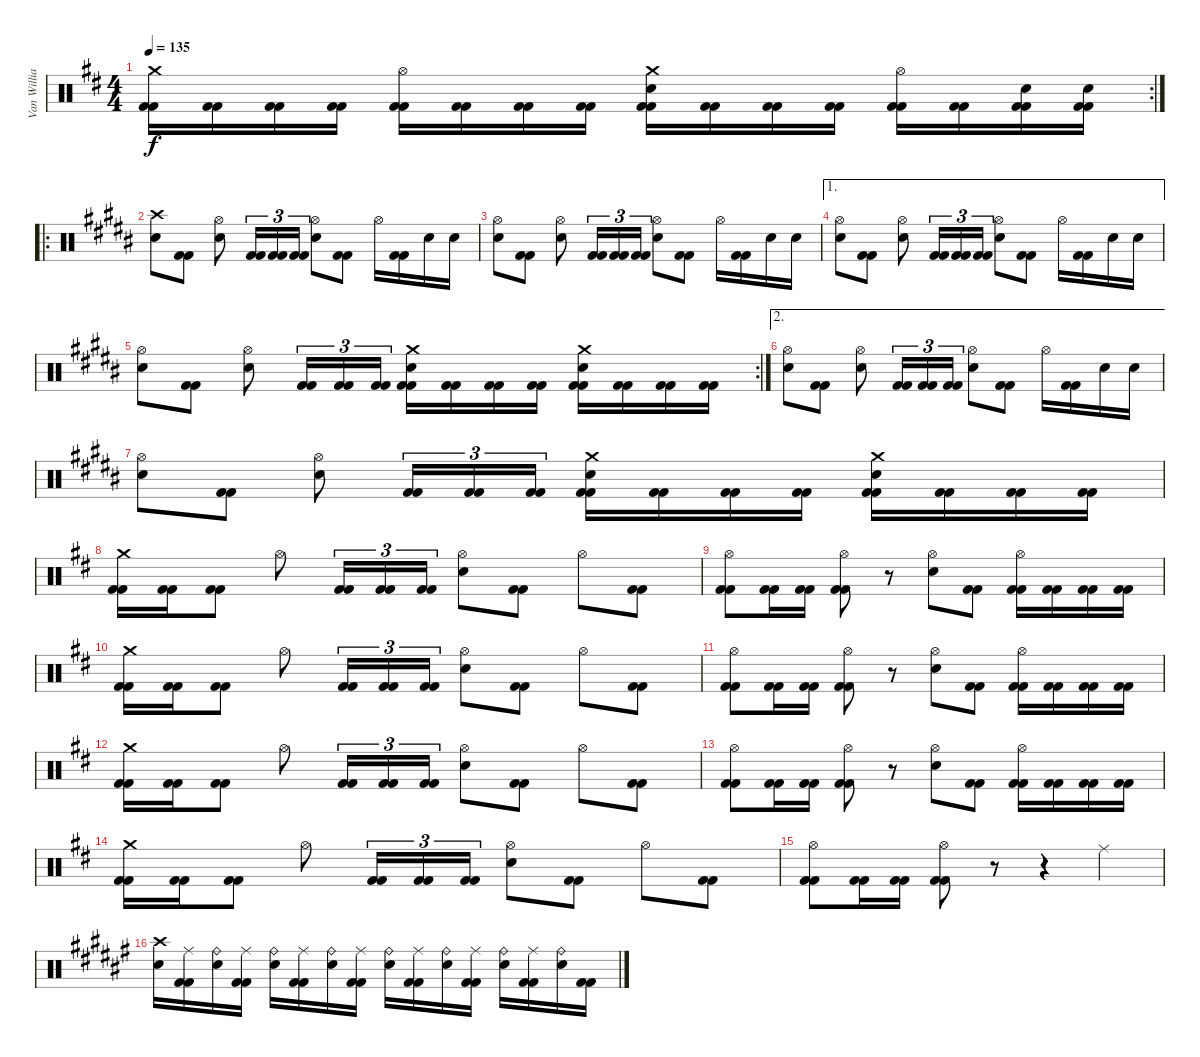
\track ("Van Williams" "Van Willia") {instrument percussion}
\staff {score}
\articulation defaults
\rc 2
\ts (4 4)
\tempo 135
\clef neutral
\ks d
("Crash medium (hit)" "Kick (hit) 2" "Kick (hit) 2").16{dy f} ("Kick (hit) 2" "Kick (hit) 2").16 ("Kick (hit) 2" "Kick (hit) 2").16 ("Kick (hit) 2" "Kick (hit) 2").16 ("Hi-Hat (open)" "Kick (hit) 2" "Kick (hit) 2").16 ("Kick (hit) 2" "Kick (hit) 2").16 ("Kick (hit) 2" "Kick (hit) 2").16 ("Kick (hit) 2" "Kick (hit) 2").16 ("Crash medium (hit)" "Electric Snare (hit)" "Kick (hit) 2" "Kick (hit) 2").16 ("Kick (hit) 2" "Kick (hit) 2").16 ("Kick (hit) 2" "Kick (hit) 2").16 ("Kick (hit) 2" "Kick (hit) 2").16 ("Hi-Hat (open)" "Kick (hit) 2" "Kick (hit) 2").16 ("Kick (hit) 2" "Kick (hit) 2").16 ("Electric Snare (hit)" "Kick (hit) 2" "Kick (hit) 2").16 ("Electric Snare (hit)" "Kick (hit) 2" "Kick (hit) 2").16 |
\ro
\ks b
("Crash high (hit)" "Electric Snare (hit)").8 ("Kick (hit) 2" "Kick (hit) 2").8 ("Hi-Hat (open)" "Electric Snare (hit)").8 ("Kick (hit) 2" "Kick (hit) 2").16{tu (3 2)} ("Kick (hit) 2" "Kick (hit) 2").16{tu (3 2)} ("Kick (hit) 2" "Kick (hit) 2").16{tu (3 2)} ("Hi-Hat (open)" "Electric Snare (hit)").8 ("Kick (hit) 2" "Kick (hit) 2").8 "Hi-Hat (open)".16 ("Kick (hit) 2" "Kick (hit) 2").16 "Electric Snare (hit)".16 "Electric Snare (hit)".16 |
("Hi-Hat (open)" "Electric Snare (hit)").8 ("Kick (hit) 2" "Kick (hit) 2").8 ("Hi-Hat (open)" "Electric Snare (hit)").8 ("Kick (hit) 2" "Kick (hit) 2").16{tu (3 2)} ("Kick (hit) 2" "Kick (hit) 2").16{tu (3 2)} ("Kick (hit) 2" "Kick (hit) 2").16{tu (3 2)} ("Hi-Hat (open)" "Electric Snare (hit)").8 ("Kick (hit) 2" "Kick (hit) 2").8 "Hi-Hat (open)".16 ("Kick (hit) 2" "Kick (hit) 2").16 "Electric Snare (hit)".16 "Electric Snare (hit)".16 |
\ae 1
("Hi-Hat (open)" "Electric Snare (hit)").8 ("Kick (hit) 2" "Kick (hit) 2").8 ("Hi-Hat (open)" "Electric Snare (hit)").8 ("Kick (hit) 2" "Kick (hit) 2").16{tu (3 2)} ("Kick (hit) 2" "Kick (hit) 2").16{tu (3 2)} ("Kick (hit) 2" "Kick (hit) 2").16{tu (3 2)} ("Hi-Hat (open)" "Electric Snare (hit)").8 ("Kick (hit) 2" "Kick (hit) 2").8 "Hi-Hat (open)".16 ("Kick (hit) 2" "Kick (hit) 2").16 "Electric Snare (hit)".16 "Electric Snare (hit)".16 |
\rc 2
("Hi-Hat (open)" "Electric Snare (hit)").8 ("Kick (hit) 2" "Kick (hit) 2").8 ("Hi-Hat (open)" "Electric Snare (hit)").8 ("Kick (hit) 2" "Kick (hit) 2").16{tu (3 2)} ("Kick (hit) 2" "Kick (hit) 2").16{tu (3 2)} ("Kick (hit) 2" "Kick (hit) 2").16{tu (3 2)} ("Crash medium (hit)" "Electric Snare (hit)" "Kick (hit) 2" "Kick (hit) 2").16 ("Kick (hit) 2" "Kick (hit) 2").16 ("Kick (hit) 2" "Kick (hit) 2").16 ("Kick (hit) 2" "Kick (hit) 2").16 ("Crash medium (hit)" "Electric Snare (hit)" "Kick (hit) 2" "Kick (hit) 2").16 ("Kick (hit) 2" "Kick (hit) 2").16 ("Kick (hit) 2" "Kick (hit) 2").16 ("Kick (hit) 2" "Kick (hit) 2").16 |
\ae 2
("Hi-Hat (open)" "Electric Snare (hit)").8 ("Kick (hit) 2" "Kick (hit) 2").8 ("Hi-Hat (open)" "Electric Snare (hit)").8 ("Kick (hit) 2" "Kick (hit) 2").16{tu (3 2)} ("Kick (hit) 2" "Kick (hit) 2").16{tu (3 2)} ("Kick (hit) 2" "Kick (hit) 2").16{tu (3 2)} ("Hi-Hat (open)" "Electric Snare (hit)").8 ("Kick (hit) 2" "Kick (hit) 2").8 "Hi-Hat (open)".16 ("Kick (hit) 2" "Kick (hit) 2").16 "Electric Snare (hit)".16 "Electric Snare (hit)".16 |
("Hi-Hat (open)" "Electric Snare (hit)").8 ("Kick (hit) 2" "Kick (hit) 2").8 ("Hi-Hat (open)" "Electric Snare (hit)").8 ("Kick (hit) 2" "Kick (hit) 2").16{tu (3 2)} ("Kick (hit) 2" "Kick (hit) 2").16{tu (3 2)} ("Kick (hit) 2" "Kick (hit) 2").16{tu (3 2)} ("Crash medium (hit)" "Electric Snare (hit)" "Kick (hit) 2" "Kick (hit) 2").16 ("Kick (hit) 2" "Kick (hit) 2").16 ("Kick (hit) 2" "Kick (hit) 2").16 ("Kick (hit) 2" "Kick (hit) 2").16 ("Crash medium (hit)" "Electric Snare (hit)" "Kick (hit) 2" "Kick (hit) 2").16 ("Kick (hit) 2" "Kick (hit) 2").16 ("Kick (hit) 2" "Kick (hit) 2").16 ("Kick (hit) 2" "Kick (hit) 2").16 |
\ks d
("Crash medium (hit)" "Kick (hit) 2" "Kick (hit) 2").16 ("Kick (hit) 2" "Kick (hit) 2").16 ("Kick (hit) 2" "Kick (hit) 2").8 "Hi-Hat (open)".8 ("Kick (hit) 2" "Kick (hit) 2").16{tu (3 2)} ("Kick (hit) 2" "Kick (hit) 2").16{tu (3 2)} ("Kick (hit) 2" "Kick (hit) 2").16{tu (3 2)} ("Hi-Hat (open)" "Electric Snare (hit)").8 ("Kick (hit) 2" "Kick (hit) 2").8 "Hi-Hat (open)".8 ("Kick (hit) 2" "Kick (hit) 2").8 |
("Hi-Hat (open)" "Kick (hit) 2" "Kick (hit) 2").8 ("Kick (hit) 2" "Kick (hit) 2").16 ("Kick (hit) 2" "Kick (hit) 2").16 ("Hi-Hat (open)" "Kick (hit) 2" "Kick (hit) 2").8 r.8 ("Hi-Hat (open)" "Electric Snare (hit)").8 ("Kick (hit) 2" "Kick (hit) 2").8 ("Hi-Hat (open)" "Kick (hit) 2" "Kick (hit) 2").16 ("Kick (hit) 2" "Kick (hit) 2").16 ("Kick (hit) 2" "Kick (hit) 2").16 ("Kick (hit) 2" "Kick (hit) 2").16 |
("Crash medium (hit)" "Kick (hit) 2" "Kick (hit) 2").16 ("Kick (hit) 2" "Kick (hit) 2").16 ("Kick (hit) 2" "Kick (hit) 2").8 "Hi-Hat (open)".8 ("Kick (hit) 2" "Kick (hit) 2").16{tu (3 2)} ("Kick (hit) 2" "Kick (hit) 2").16{tu (3 2)} ("Kick (hit) 2" "Kick (hit) 2").16{tu (3 2)} ("Hi-Hat (open)" "Electric Snare (hit)").8 ("Kick (hit) 2" "Kick (hit) 2").8 "Hi-Hat (open)".8 ("Kick (hit) 2" "Kick (hit) 2").8 |
("Hi-Hat (open)" "Kick (hit) 2" "Kick (hit) 2").8 ("Kick (hit) 2" "Kick (hit) 2").16 ("Kick (hit) 2" "Kick (hit) 2").16 ("Hi-Hat (open)" "Kick (hit) 2" "Kick (hit) 2").8 r.8 ("Hi-Hat (open)" "Electric Snare (hit)").8 ("Kick (hit) 2" "Kick (hit) 2").8 ("Hi-Hat (open)" "Kick (hit) 2" "Kick (hit) 2").16 ("Kick (hit) 2" "Kick (hit) 2").16 ("Kick (hit) 2" "Kick (hit) 2").16 ("Kick (hit) 2" "Kick (hit) 2").16 |
("Crash medium (hit)" "Kick (hit) 2" "Kick (hit) 2").16 ("Kick (hit) 2" "Kick (hit) 2").16 ("Kick (hit) 2" "Kick (hit) 2").8 "Hi-Hat (open)".8 ("Kick (hit) 2" "Kick (hit) 2").16{tu (3 2)} ("Kick (hit) 2" "Kick (hit) 2").16{tu (3 2)} ("Kick (hit) 2" "Kick (hit) 2").16{tu (3 2)} ("Hi-Hat (open)" "Electric Snare (hit)").8 ("Kick (hit) 2" "Kick (hit) 2").8 "Hi-Hat (open)".8 ("Kick (hit) 2" "Kick (hit) 2").8 |
("Hi-Hat (open)" "Kick (hit) 2" "Kick (hit) 2").8 ("Kick (hit) 2" "Kick (hit) 2").16 ("Kick (hit) 2" "Kick (hit) 2").16 ("Hi-Hat (open)" "Kick (hit) 2" "Kick (hit) 2").8 r.8 ("Hi-Hat (open)" "Electric Snare (hit)").8 ("Kick (hit) 2" "Kick (hit) 2").8 ("Hi-Hat (open)" "Kick (hit) 2" "Kick (hit) 2").16 ("Kick (hit) 2" "Kick (hit) 2").16 ("Kick (hit) 2" "Kick (hit) 2").16 ("Kick (hit) 2" "Kick (hit) 2").16 |
("Crash medium (hit)" "Kick (hit) 2" "Kick (hit) 2").16 ("Kick (hit) 2" "Kick (hit) 2").16 ("Kick (hit) 2" "Kick (hit) 2").8 "Hi-Hat (open)".8 ("Kick (hit) 2" "Kick (hit) 2").16{tu (3 2)} ("Kick (hit) 2" "Kick (hit) 2").16{tu (3 2)} ("Kick (hit) 2" "Kick (hit) 2").16{tu (3 2)} ("Hi-Hat (open)" "Electric Snare (hit)").8 ("Kick (hit) 2" "Kick (hit) 2").8 "Hi-Hat (open)".8 ("Kick (hit) 2" "Kick (hit) 2").8 |
("Hi-Hat (open)" "Kick (hit) 2" "Kick (hit) 2").8 ("Kick (hit) 2" "Kick (hit) 2").16 ("Kick (hit) 2" "Kick (hit) 2").16 ("Hi-Hat (open)" "Kick (hit) 2" "Kick (hit) 2").8 r.8 r.4 "Ride (middle)".4 |
\ks f#
("Crash high (hit)" "Electric Snare (hit)").16 ("Ride (middle)" "Kick (hit) 2" "Kick (hit) 2").16 ("Ride (bell)" "Electric Snare (hit)").16 ("Ride (middle)" "Kick (hit) 2" "Kick (hit) 2").16 ("Ride (bell)" "Electric Snare (hit)").16 ("Ride (middle)" "Kick (hit) 2" "Kick (hit) 2").16 ("Ride (bell)" "Electric Snare (hit)").16 ("Ride (middle)" "Kick (hit) 2" "Kick (hit) 2").16 ("Ride (bell)" "Electric Snare (hit)").16 ("Ride (middle)" "Kick (hit) 2" "Kick (hit) 2").16 ("Ride (bell)" "Electric Snare (hit)").16 ("Ride (middle)" "Kick (hit) 2" "Kick (hit) 2").16 ("Ride (bell)" "Electric Snare (hit)").16 ("Ride (middle)" "Kick (hit) 2" "Kick (hit) 2").16 ("Ride (bell)" "Electric Snare (hit)").16 ("Kick (hit) 2" "Kick (hit) 2").16
